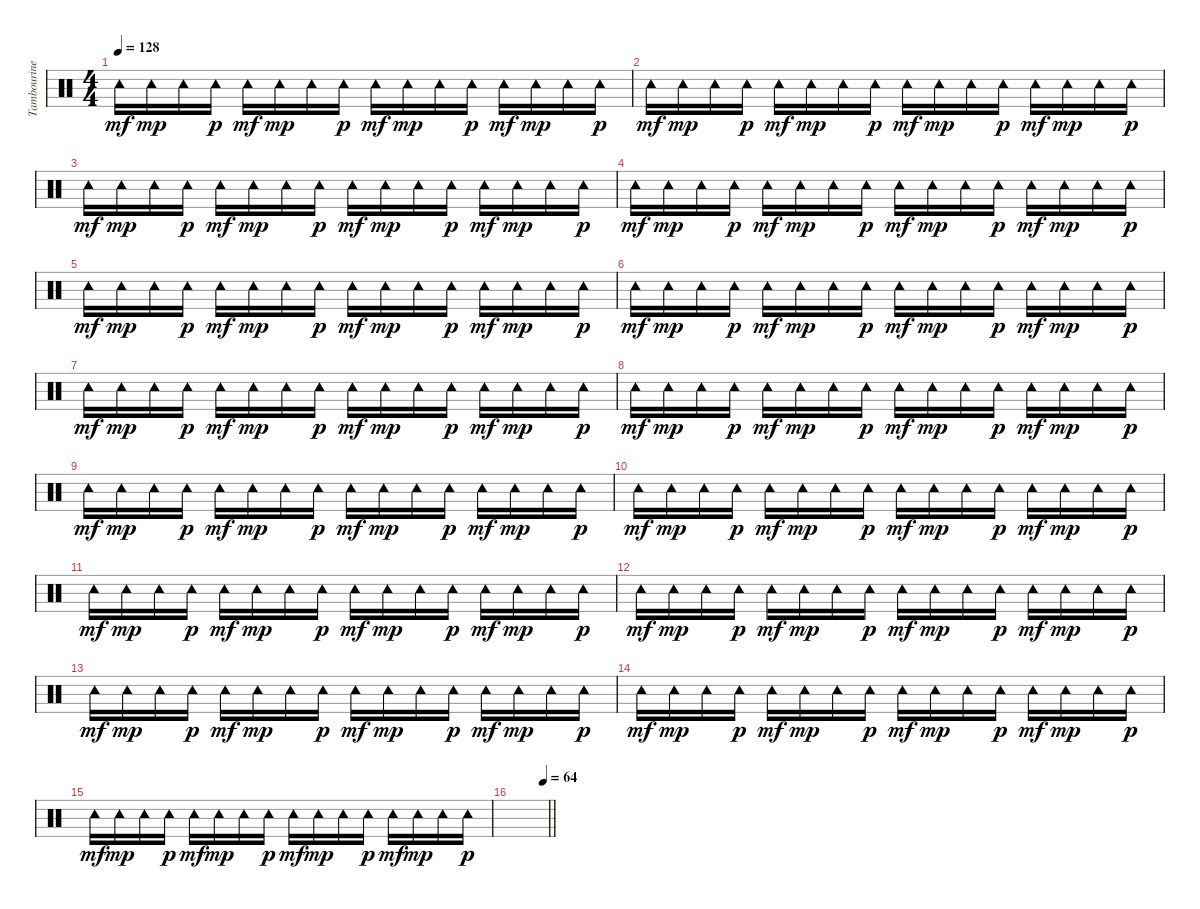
\track ("Tambourine" "Tambourine") {instrument percussion}
\staff {score}
\articulation defaults
\ts (4 4)
\tempo 128
\clef neutral
\ks c "Tambourine (hit)".16{dy mf} "Tambourine (hit)".16{dy mp} "Tambourine (hit)".16 "Tambourine (hit)".16{dy p} "Tambourine (hit)".16{dy mf} "Tambourine (hit)".16{dy mp} "Tambourine (hit)".16 "Tambourine (hit)".16{dy p} "Tambourine (hit)".16{dy mf} "Tambourine (hit)".16{dy mp} "Tambourine (hit)".16 "Tambourine (hit)".16{dy p} "Tambourine (hit)".16{dy mf} "Tambourine (hit)".16{dy mp} "Tambourine (hit)".16 "Tambourine (hit)".16{dy p}
|
"Tambourine (hit)".16{dy mf} "Tambourine (hit)".16{dy mp} "Tambourine (hit)".16 "Tambourine (hit)".16{dy p} "Tambourine (hit)".16{dy mf} "Tambourine (hit)".16{dy mp} "Tambourine (hit)".16 "Tambourine (hit)".16{dy p} "Tambourine (hit)".16{dy mf} "Tambourine (hit)".16{dy mp} "Tambourine (hit)".16 "Tambourine (hit)".16{dy p} "Tambourine (hit)".16{dy mf} "Tambourine (hit)".16{dy mp} "Tambourine (hit)".16 "Tambourine (hit)".16{dy p} |
"Tambourine (hit)".16{dy mf} "Tambourine (hit)".16{dy mp} "Tambourine (hit)".16 "Tambourine (hit)".16{dy p} "Tambourine (hit)".16{dy mf} "Tambourine (hit)".16{dy mp} "Tambourine (hit)".16 "Tambourine (hit)".16{dy p} "Tambourine (hit)".16{dy mf} "Tambourine (hit)".16{dy mp} "Tambourine (hit)".16 "Tambourine (hit)".16{dy p} "Tambourine (hit)".16{dy mf} "Tambourine (hit)".16{dy mp} "Tambourine (hit)".16 "Tambourine (hit)".16{dy p} |
"Tambourine (hit)".16{dy mf} "Tambourine (hit)".16{dy mp} "Tambourine (hit)".16 "Tambourine (hit)".16{dy p} "Tambourine (hit)".16{dy mf} "Tambourine (hit)".16{dy mp} "Tambourine (hit)".16 "Tambourine (hit)".16{dy p} "Tambourine (hit)".16{dy mf} "Tambourine (hit)".16{dy mp} "Tambourine (hit)".16 "Tambourine (hit)".16{dy p} "Tambourine (hit)".16{dy mf} "Tambourine (hit)".16{dy mp} "Tambourine (hit)".16 "Tambourine (hit)".16{dy p} |
"Tambourine (hit)".16{dy mf} "Tambourine (hit)".16{dy mp} "Tambourine (hit)".16 "Tambourine (hit)".16{dy p} "Tambourine (hit)".16{dy mf} "Tambourine (hit)".16{dy mp} "Tambourine (hit)".16 "Tambourine (hit)".16{dy p} "Tambourine (hit)".16{dy mf} "Tambourine (hit)".16{dy mp} "Tambourine (hit)".16 "Tambourine (hit)".16{dy p} "Tambourine (hit)".16{dy mf} "Tambourine (hit)".16{dy mp} "Tambourine (hit)".16 "Tambourine (hit)".16{dy p} |
"Tambourine (hit)".16{dy mf} "Tambourine (hit)".16{dy mp} "Tambourine (hit)".16 "Tambourine (hit)".16{dy p} "Tambourine (hit)".16{dy mf} "Tambourine (hit)".16{dy mp} "Tambourine (hit)".16 "Tambourine (hit)".16{dy p} "Tambourine (hit)".16{dy mf} "Tambourine (hit)".16{dy mp} "Tambourine (hit)".16 "Tambourine (hit)".16{dy p} "Tambourine (hit)".16{dy mf} "Tambourine (hit)".16{dy mp} "Tambourine (hit)".16 "Tambourine (hit)".16{dy p} |
"Tambourine (hit)".16{dy mf} "Tambourine (hit)".16{dy mp} "Tambourine (hit)".16 "Tambourine (hit)".16{dy p} "Tambourine (hit)".16{dy mf} "Tambourine (hit)".16{dy mp} "Tambourine (hit)".16 "Tambourine (hit)".16{dy p} "Tambourine (hit)".16{dy mf} "Tambourine (hit)".16{dy mp} "Tambourine (hit)".16 "Tambourine (hit)".16{dy p} "Tambourine (hit)".16{dy mf} "Tambourine (hit)".16{dy mp} "Tambourine (hit)".16 "Tambourine (hit)".16{dy p} |
"Tambourine (hit)".16{dy mf} "Tambourine (hit)".16{dy mp} "Tambourine (hit)".16 "Tambourine (hit)".16{dy p} "Tambourine (hit)".16{dy mf} "Tambourine (hit)".16{dy mp} "Tambourine (hit)".16 "Tambourine (hit)".16{dy p} "Tambourine (hit)".16{dy mf} "Tambourine (hit)".16{dy mp} "Tambourine (hit)".16 "Tambourine (hit)".16{dy p} "Tambourine (hit)".16{dy mf} "Tambourine (hit)".16{dy mp} "Tambourine (hit)".16 "Tambourine (hit)".16{dy p} |
"Tambourine (hit)".16{dy mf} "Tambourine (hit)".16{dy mp} "Tambourine (hit)".16 "Tambourine (hit)".16{dy p} "Tambourine (hit)".16{dy mf} "Tambourine (hit)".16{dy mp} "Tambourine (hit)".16 "Tambourine (hit)".16{dy p} "Tambourine (hit)".16{dy mf} "Tambourine (hit)".16{dy mp} "Tambourine (hit)".16 "Tambourine (hit)".16{dy p} "Tambourine (hit)".16{dy mf} "Tambourine (hit)".16{dy mp} "Tambourine (hit)".16 "Tambourine (hit)".16{dy p} |
"Tambourine (hit)".16{dy mf} "Tambourine (hit)".16{dy mp} "Tambourine (hit)".16 "Tambourine (hit)".16{dy p} "Tambourine (hit)".16{dy mf} "Tambourine (hit)".16{dy mp} "Tambourine (hit)".16 "Tambourine (hit)".16{dy p} "Tambourine (hit)".16{dy mf} "Tambourine (hit)".16{dy mp} "Tambourine (hit)".16 "Tambourine (hit)".16{dy p} "Tambourine (hit)".16{dy mf} "Tambourine (hit)".16{dy mp} "Tambourine (hit)".16 "Tambourine (hit)".16{dy p} |
"Tambourine (hit)".16{dy mf} "Tambourine (hit)".16{dy mp} "Tambourine (hit)".16 "Tambourine (hit)".16{dy p} "Tambourine (hit)".16{dy mf} "Tambourine (hit)".16{dy mp} "Tambourine (hit)".16 "Tambourine (hit)".16{dy p} "Tambourine (hit)".16{dy mf} "Tambourine (hit)".16{dy mp} "Tambourine (hit)".16 "Tambourine (hit)".16{dy p} "Tambourine (hit)".16{dy mf} "Tambourine (hit)".16{dy mp} "Tambourine (hit)".16 "Tambourine (hit)".16{dy p} |
"Tambourine (hit)".16{dy mf} "Tambourine (hit)".16{dy mp} "Tambourine (hit)".16 "Tambourine (hit)".16{dy p} "Tambourine (hit)".16{dy mf} "Tambourine (hit)".16{dy mp} "Tambourine (hit)".16 "Tambourine (hit)".16{dy p} "Tambourine (hit)".16{dy mf} "Tambourine (hit)".16{dy mp} "Tambourine (hit)".16 "Tambourine (hit)".16{dy p} "Tambourine (hit)".16{dy mf} "Tambourine (hit)".16{dy mp} "Tambourine (hit)".16 "Tambourine (hit)".16{dy p} |
"Tambourine (hit)".16{dy mf} "Tambourine (hit)".16{dy mp} "Tambourine (hit)".16 "Tambourine (hit)".16{dy p} "Tambourine (hit)".16{dy mf} "Tambourine (hit)".16{dy mp} "Tambourine (hit)".16 "Tambourine (hit)".16{dy p} "Tambourine (hit)".16{dy mf} "Tambourine (hit)".16{dy mp} "Tambourine (hit)".16 "Tambourine (hit)".16{dy p} "Tambourine (hit)".16{dy mf} "Tambourine (hit)".16{dy mp} "Tambourine (hit)".16 "Tambourine (hit)".16{dy p} |
"Tambourine (hit)".16{dy mf} "Tambourine (hit)".16{dy mp} "Tambourine (hit)".16 "Tambourine (hit)".16{dy p} "Tambourine (hit)".16{dy mf} "Tambourine (hit)".16{dy mp} "Tambourine (hit)".16 "Tambourine (hit)".16{dy p} "Tambourine (hit)".16{dy mf} "Tambourine (hit)".16{dy mp} "Tambourine (hit)".16 "Tambourine (hit)".16{dy p} "Tambourine (hit)".16{dy mf} "Tambourine (hit)".16{dy mp} "Tambourine (hit)".16 "Tambourine (hit)".16{dy p} |
"Tambourine (hit)".16{dy mf} "Tambourine (hit)".16{dy mp} "Tambourine (hit)".16 "Tambourine (hit)".16{dy p} "Tambourine (hit)".16{dy mf} "Tambourine (hit)".16{dy mp} "Tambourine (hit)".16 "Tambourine (hit)".16{dy p} "Tambourine (hit)".16{dy mf} "Tambourine (hit)".16{dy mp} "Tambourine (hit)".16 "Tambourine (hit)".16{dy p} "Tambourine (hit)".16{dy mf} "Tambourine (hit)".16{dy mp} "Tambourine (hit)".16 "Tambourine (hit)".16{dy p} |
\tempo (64 0.875)
\barLineRight lightlight
